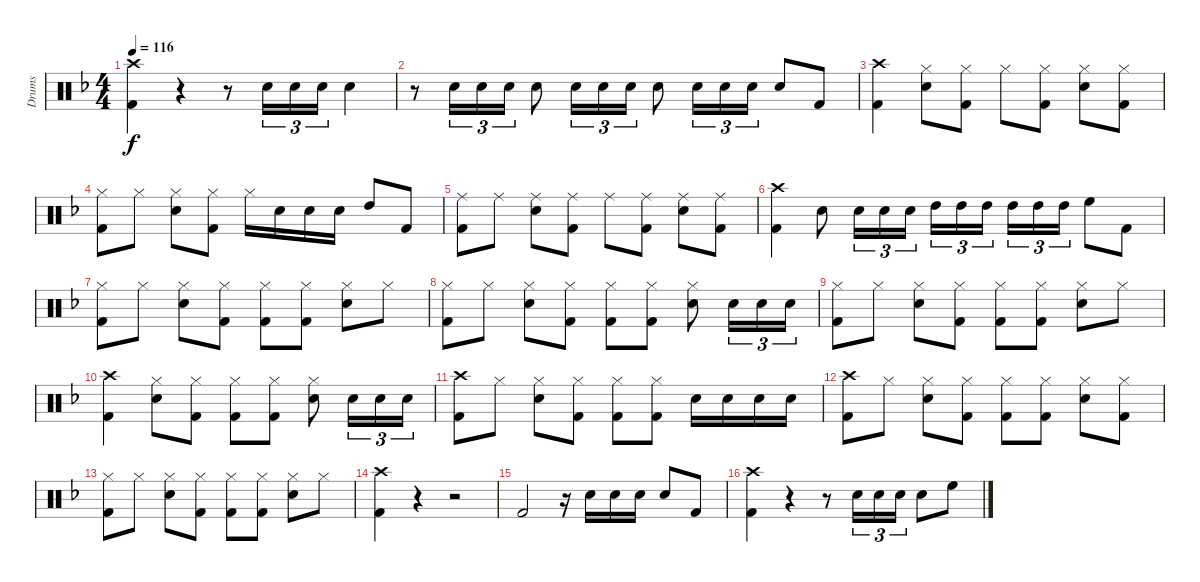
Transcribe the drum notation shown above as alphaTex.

\track ("Drums" "Drums") {instrument percussion}
\staff {score}
\articulation defaults
\ts (4 4)
\tempo 116
\clef neutral
\ks dminor
("Crash high (hit)" "Kick (hit) 2").4{dy f} r.4 r.8 "Electric Snare (hit)".16{tu (3 2)} "Electric Snare (hit)".16{tu (3 2)} "Electric Snare (hit)".16{tu (3 2)} "Electric Snare (hit)".4 |
r.8 "Electric Snare (hit)".16{tu (3 2)} "Electric Snare (hit)".16{tu (3 2)} "Electric Snare (hit)".16{tu (3 2)} "Electric Snare (hit)".8 "Electric Snare (hit)".16{tu (3 2)} "Electric Snare (hit)".16{tu (3 2)} "Electric Snare (hit)".16{tu (3 2)} "Electric Snare (hit)".8 "Electric Snare (hit)".16{tu (3 2)} "Electric Snare (hit)".16{tu (3 2)} "Electric Snare (hit)".16{tu (3 2)} "Electric Snare (hit)".8 "Kick (hit) 2".8 |
("Crash high (hit)" "Kick (hit) 2").4 ("Hi-Hat (closed)" "Electric Snare (hit)").8 ("Hi-Hat (closed)" "Kick (hit) 2").8 "Hi-Hat (closed)".8 ("Hi-Hat (closed)" "Kick (hit) 2").8 ("Hi-Hat (closed)" "Electric Snare (hit)").8 ("Hi-Hat (closed)" "Kick (hit) 2").8 |
("Hi-Hat (closed)" "Kick (hit) 2").8 "Hi-Hat (closed)".8 ("Hi-Hat (closed)" "Electric Snare (hit)").8 ("Hi-Hat (closed)" "Kick (hit) 2").8 "Hi-Hat (closed)".16 "Electric Snare (hit)".16 "Electric Snare (hit)".16 "Electric Snare (hit)".16 "High Tom (hit)".8 "Kick (hit) 2".8 |
("Ride (middle)" "Kick (hit) 2").8 "Ride (middle)".8 ("Ride (middle)" "Electric Snare (hit)").8 ("Ride (middle)" "Kick (hit) 2").8 "Ride (middle)".8 ("Ride (middle)" "Kick (hit) 2").8 ("Ride (middle)" "Electric Snare (hit)").8 ("Ride (middle)" "Kick (hit) 2").8 |
("Crash high (hit)" "Kick (hit) 2").4 "Electric Snare (hit)".8 "Electric Snare (hit)".16{tu (3 2)} "Electric Snare (hit)".16{tu (3 2)} "Electric Snare (hit)".16{tu (3 2)} "High Tom (hit)".16{tu (3 2)} "High Tom (hit)".16{tu (3 2)} "High Tom (hit)".16{tu (3 2)} "High Tom (hit)".16{tu (3 2)} "High Tom (hit)".16{tu (3 2)} "High Tom (hit)".16{tu (3 2)} "High Floor Tom (hit)".8 "Kick (hit) 2".8 |
("Hi-Hat (closed)" "Kick (hit) 2").8 "Hi-Hat (closed)".8 ("Hi-Hat (closed)" "Electric Snare (hit)").8 ("Hi-Hat (closed)" "Kick (hit) 2").8 ("Hi-Hat (closed)" "Kick (hit) 2").8 ("Hi-Hat (closed)" "Kick (hit) 2").8 ("Hi-Hat (closed)" "Electric Snare (hit)").8 "Hi-Hat (closed)".8 |
("Hi-Hat (closed)" "Kick (hit) 2").8 "Hi-Hat (closed)".8 ("Hi-Hat (closed)" "Electric Snare (hit)").8 ("Hi-Hat (closed)" "Kick (hit) 2").8 ("Hi-Hat (closed)" "Kick (hit) 2").8 ("Hi-Hat (closed)" "Kick (hit) 2").8 ("Hi-Hat (closed)" "Electric Snare (hit)").8 "Electric Snare (hit)".16{tu (3 2)} "Electric Snare (hit)".16{tu (3 2)} "Electric Snare (hit)".16{tu (3 2)} |
("Hi-Hat (closed)" "Kick (hit) 2").8 "Hi-Hat (closed)".8 ("Hi-Hat (closed)" "Electric Snare (hit)").8 ("Hi-Hat (closed)" "Kick (hit) 2").8 ("Hi-Hat (closed)" "Kick (hit) 2").8 ("Hi-Hat (closed)" "Kick (hit) 2").8 ("Hi-Hat (closed)" "Electric Snare (hit)").8 "Hi-Hat (closed)".8 |
("Crash high (hit)" "Kick (hit) 2").4 ("Hi-Hat (closed)" "Electric Snare (hit)").8 ("Hi-Hat (closed)" "Kick (hit) 2").8 ("Hi-Hat (closed)" "Kick (hit) 2").8 ("Hi-Hat (closed)" "Kick (hit) 2").8 ("Hi-Hat (closed)" "Electric Snare (hit)").8 "Electric Snare (hit)".16{tu (3 2)} "Electric Snare (hit)".16{tu (3 2)} "Electric Snare (hit)".16{tu (3 2)} |
("Crash high (hit)" "Kick (hit) 2").8 "Hi-Hat (closed)".8 ("Hi-Hat (closed)" "Electric Snare (hit)").8 ("Hi-Hat (closed)" "Kick (hit) 2").8 ("Hi-Hat (closed)" "Kick (hit) 2").8 ("Hi-Hat (closed)" "Kick (hit) 2").8 "Electric Snare (hit)".16 "Electric Snare (hit)".16 "Electric Snare (hit)".16 "Electric Snare (hit)".16 |
("Crash high (hit)" "Kick (hit) 2").8 "Hi-Hat (closed)".8 ("Hi-Hat (closed)" "Electric Snare (hit)").8 ("Hi-Hat (closed)" "Kick (hit) 2").8 ("Hi-Hat (closed)" "Kick (hit) 2").8 ("Hi-Hat (closed)" "Kick (hit) 2").8 ("Hi-Hat (closed)" "Electric Snare (hit)").8 ("Hi-Hat (closed)" "Kick (hit) 2").8 |
("Hi-Hat (closed)" "Kick (hit) 2").8 "Hi-Hat (closed)".8 ("Hi-Hat (closed)" "Electric Snare (hit)").8 ("Hi-Hat (closed)" "Kick (hit) 2").8 ("Hi-Hat (closed)" "Kick (hit) 2").8 ("Hi-Hat (closed)" "Kick (hit) 2").8 ("Hi-Hat (closed)" "Electric Snare (hit)").8 "Hi-Hat (closed)".8 |
("Crash high (hit)" "Kick (hit) 2").4 r.4 r.2 |
"Kick (hit) 2".2 r.16 "Electric Snare (hit)".16 "Electric Snare (hit)".16 "Electric Snare (hit)".16 "Electric Snare (hit)".8 "Kick (hit) 2".8 |
("Crash high (hit)" "Kick (hit) 2").4 r.4 r.8 "Electric Snare (hit)".16{tu (3 2)} "Electric Snare (hit)".16{tu (3 2)} "Electric Snare (hit)".16{tu (3 2)} "Electric Snare (hit)".8 "High Floor Tom (hit)".8
